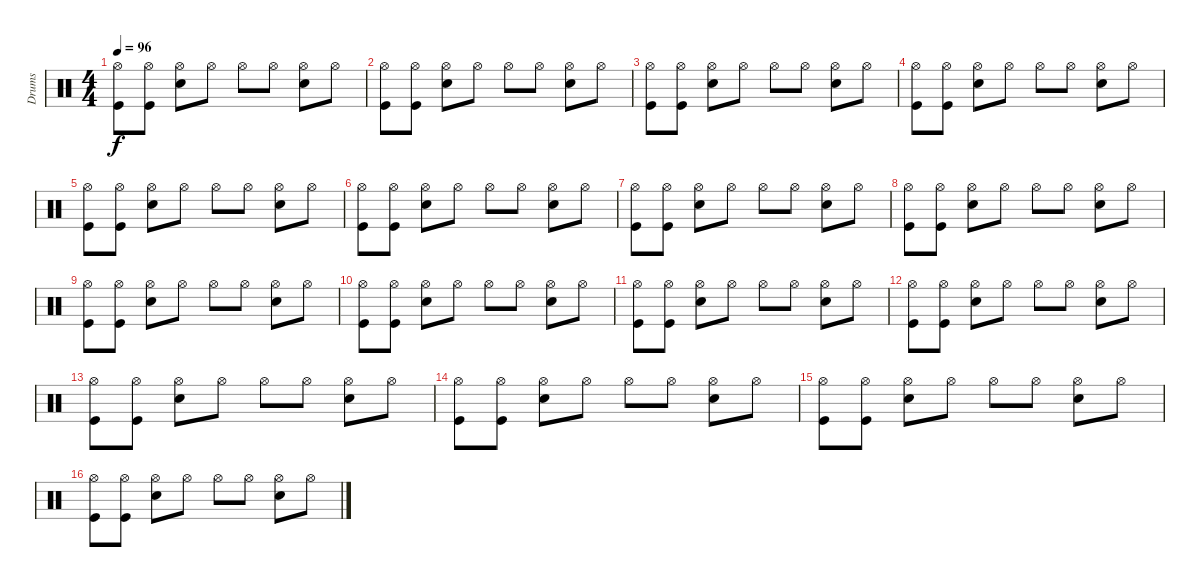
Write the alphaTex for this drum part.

\track ("Drums" "Drums") {instrument percussion}
\staff {score}
\articulation defaults
\ts (4 4)
\tempo 96
\clef neutral
\ks c
("Hi-Hat (open)" "Kick (hit)").8{dy f} ("Hi-Hat (open)" "Kick (hit)").8 ("Hi-Hat (open)" "Electric Snare (hit)").8 "Hi-Hat (open)".8 "Hi-Hat (open)".8 "Hi-Hat (open)".8 ("Hi-Hat (open)" "Electric Snare (hit)").8 "Hi-Hat (open)".8 |
("Hi-Hat (open)" "Kick (hit)").8 ("Hi-Hat (open)" "Kick (hit)").8 ("Hi-Hat (open)" "Electric Snare (hit)").8 "Hi-Hat (open)".8 "Hi-Hat (open)".8 "Hi-Hat (open)".8 ("Hi-Hat (open)" "Electric Snare (hit)").8 "Hi-Hat (open)".8 |
("Hi-Hat (open)" "Kick (hit)").8 ("Hi-Hat (open)" "Kick (hit)").8 ("Hi-Hat (open)" "Electric Snare (hit)").8 "Hi-Hat (open)".8 "Hi-Hat (open)".8 "Hi-Hat (open)".8 ("Hi-Hat (open)" "Electric Snare (hit)").8 "Hi-Hat (open)".8 |
("Hi-Hat (open)" "Kick (hit)").8 ("Hi-Hat (open)" "Kick (hit)").8 ("Hi-Hat (open)" "Electric Snare (hit)").8 "Hi-Hat (open)".8 "Hi-Hat (open)".8 "Hi-Hat (open)".8 ("Hi-Hat (open)" "Electric Snare (hit)").8 "Hi-Hat (open)".8 |
("Hi-Hat (open)" "Kick (hit)").8 ("Hi-Hat (open)" "Kick (hit)").8 ("Hi-Hat (open)" "Electric Snare (hit)").8 "Hi-Hat (open)".8 "Hi-Hat (open)".8 "Hi-Hat (open)".8 ("Hi-Hat (open)" "Electric Snare (hit)").8 "Hi-Hat (open)".8 |
("Hi-Hat (open)" "Kick (hit)").8 ("Hi-Hat (open)" "Kick (hit)").8 ("Hi-Hat (open)" "Electric Snare (hit)").8 "Hi-Hat (open)".8 "Hi-Hat (open)".8 "Hi-Hat (open)".8 ("Hi-Hat (open)" "Electric Snare (hit)").8 "Hi-Hat (open)".8 |
("Hi-Hat (open)" "Kick (hit)").8 ("Hi-Hat (open)" "Kick (hit)").8 ("Hi-Hat (open)" "Electric Snare (hit)").8 "Hi-Hat (open)".8 "Hi-Hat (open)".8 "Hi-Hat (open)".8 ("Hi-Hat (open)" "Electric Snare (hit)").8 "Hi-Hat (open)".8 |
("Hi-Hat (open)" "Kick (hit)").8 ("Hi-Hat (open)" "Kick (hit)").8 ("Hi-Hat (open)" "Electric Snare (hit)").8 "Hi-Hat (open)".8 "Hi-Hat (open)".8 "Hi-Hat (open)".8 ("Hi-Hat (open)" "Electric Snare (hit)").8 "Hi-Hat (open)".8 |
("Hi-Hat (open)" "Kick (hit)").8 ("Hi-Hat (open)" "Kick (hit)").8 ("Hi-Hat (open)" "Electric Snare (hit)").8 "Hi-Hat (open)".8 "Hi-Hat (open)".8 "Hi-Hat (open)".8 ("Hi-Hat (open)" "Electric Snare (hit)").8 "Hi-Hat (open)".8 |
("Hi-Hat (open)" "Kick (hit)").8 ("Hi-Hat (open)" "Kick (hit)").8 ("Hi-Hat (open)" "Electric Snare (hit)").8 "Hi-Hat (open)".8 "Hi-Hat (open)".8 "Hi-Hat (open)".8 ("Hi-Hat (open)" "Electric Snare (hit)").8 "Hi-Hat (open)".8 |
("Hi-Hat (open)" "Kick (hit)").8 ("Hi-Hat (open)" "Kick (hit)").8 ("Hi-Hat (open)" "Electric Snare (hit)").8 "Hi-Hat (open)".8 "Hi-Hat (open)".8 "Hi-Hat (open)".8 ("Hi-Hat (open)" "Electric Snare (hit)").8 "Hi-Hat (open)".8 |
("Hi-Hat (open)" "Kick (hit)").8 ("Hi-Hat (open)" "Kick (hit)").8 ("Hi-Hat (open)" "Electric Snare (hit)").8 "Hi-Hat (open)".8 "Hi-Hat (open)".8 "Hi-Hat (open)".8 ("Hi-Hat (open)" "Electric Snare (hit)").8 "Hi-Hat (open)".8 |
("Hi-Hat (open)" "Kick (hit)").8 ("Hi-Hat (open)" "Kick (hit)").8 ("Hi-Hat (open)" "Electric Snare (hit)").8 "Hi-Hat (open)".8 "Hi-Hat (open)".8 "Hi-Hat (open)".8 ("Hi-Hat (open)" "Electric Snare (hit)").8 "Hi-Hat (open)".8 |
("Hi-Hat (open)" "Kick (hit)").8 ("Hi-Hat (open)" "Kick (hit)").8 ("Hi-Hat (open)" "Electric Snare (hit)").8 "Hi-Hat (open)".8 "Hi-Hat (open)".8 "Hi-Hat (open)".8 ("Hi-Hat (open)" "Electric Snare (hit)").8 "Hi-Hat (open)".8 |
("Hi-Hat (open)" "Kick (hit)").8 ("Hi-Hat (open)" "Kick (hit)").8 ("Hi-Hat (open)" "Electric Snare (hit)").8 "Hi-Hat (open)".8 "Hi-Hat (open)".8 "Hi-Hat (open)".8 ("Hi-Hat (open)" "Electric Snare (hit)").8 "Hi-Hat (open)".8 |
("Hi-Hat (open)" "Kick (hit)").8 ("Hi-Hat (open)" "Kick (hit)").8 ("Hi-Hat (open)" "Electric Snare (hit)").8 "Hi-Hat (open)".8 "Hi-Hat (open)".8 "Hi-Hat (open)".8 ("Hi-Hat (open)" "Electric Snare (hit)").8 "Hi-Hat (open)".8
